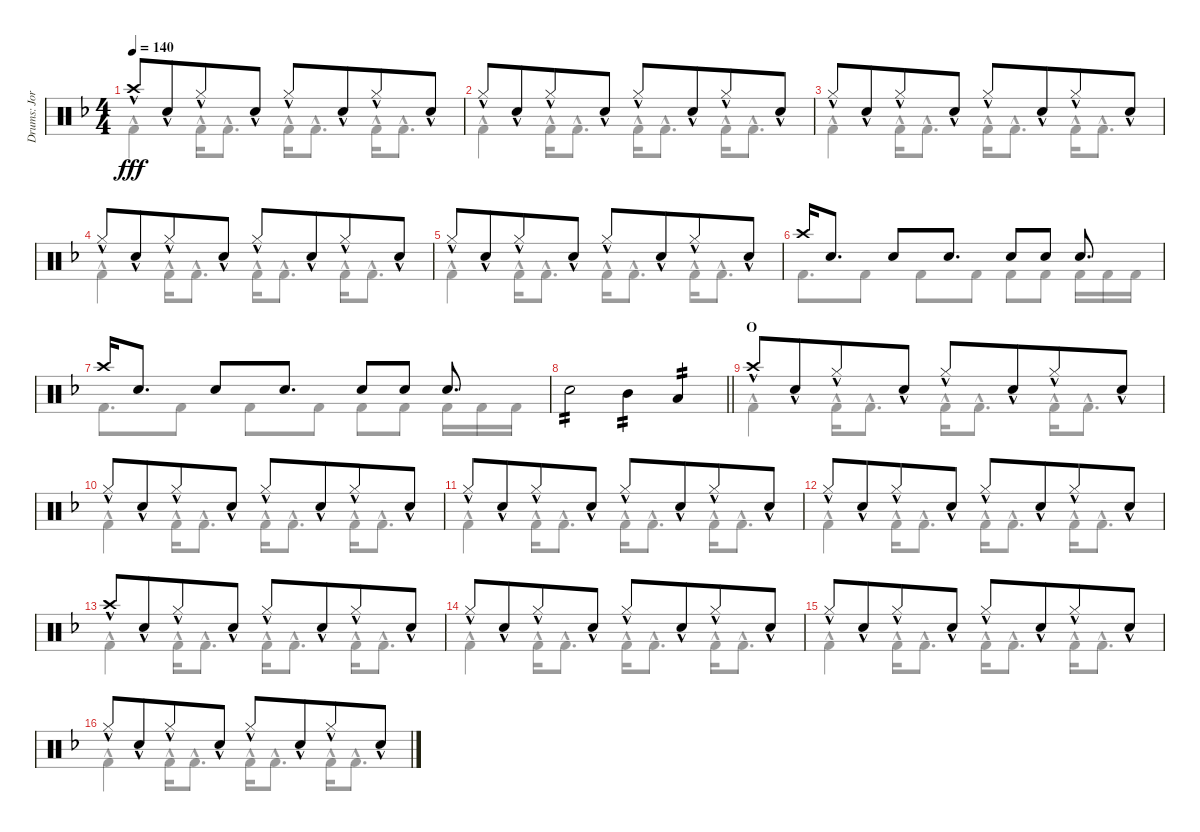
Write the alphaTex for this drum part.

\track ("Drums: Jorg" "Drums: Jor") {instrument percussion}
\staff {score}
\articulation defaults
\voice
\ts (4 4)
\tempo 140
\clef neutral
\ks f "Crash high (hit)"{hac}.8{dy fff} "Snare (hit) 2"{hac}.8{beam merge} "Hi-Hat (closed)"{hac}.8 "Snare (hit) 2"{hac}.8 "Hi-Hat (closed)"{hac}.8 "Snare (hit) 2"{hac}.8{beam merge} "Hi-Hat (closed)"{hac}.8 "Snare (hit) 2"{hac}.8
|
"Hi-Hat (closed)"{hac}.8 "Snare (hit) 2"{hac}.8{beam merge} "Hi-Hat (closed)"{hac}.8 "Snare (hit) 2"{hac}.8 "Hi-Hat (closed)"{hac}.8 "Snare (hit) 2"{hac}.8{beam merge} "Hi-Hat (closed)"{hac}.8 "Snare (hit) 2"{hac}.8 |
"Hi-Hat (closed)"{hac}.8 "Snare (hit) 2"{hac}.8{beam merge} "Hi-Hat (closed)"{hac}.8 "Snare (hit) 2"{hac}.8 "Hi-Hat (closed)"{hac}.8 "Snare (hit) 2"{hac}.8{beam merge} "Hi-Hat (closed)"{hac}.8 "Snare (hit) 2"{hac}.8 |
"Hi-Hat (closed)"{hac}.8 "Snare (hit) 2"{hac}.8{beam merge} "Hi-Hat (closed)"{hac}.8 "Snare (hit) 2"{hac}.8 "Hi-Hat (closed)"{hac}.8 "Snare (hit) 2"{hac}.8{beam merge} "Hi-Hat (closed)"{hac}.8 "Snare (hit) 2"{hac}.8 |
"Hi-Hat (closed)"{hac}.8 "Snare (hit) 2"{hac}.8{beam merge} "Hi-Hat (closed)"{hac}.8 "Snare (hit) 2"{hac}.8 "Hi-Hat (closed)"{hac}.8 "Snare (hit) 2"{hac}.8{beam merge} "Hi-Hat (closed)"{hac}.8 "Snare (hit) 2"{hac}.8 |
"Crash high (hit)".16 "Snare (hit) 2".8{d} "Snare (hit) 2".8 "Snare (hit) 2".8{d} "Snare (hit) 2".8 "Snare (hit) 2".8 "Snare (hit) 2".8{d} |
"Crash high (hit)".16 "Snare (hit) 2".8{d} "Snare (hit) 2".8 "Snare (hit) 2".8{d} "Snare (hit) 2".8 "Snare (hit) 2".8 "Snare (hit) 2".8{d} |
\barLineRight lightlight "Snare (hit) 2".2{tp 2} "Mid Tom (hit)".4{tp 2} "Low Tom (hit)".4{tp 2}
|
\section ("" "O")
"Crash high (hit)"{hac}.8 "Snare (hit) 2"{hac}.8{beam merge} "Hi-Hat (closed)"{hac}.8 "Snare (hit) 2"{hac}.8 "Hi-Hat (closed)"{hac}.8 "Snare (hit) 2"{hac}.8{beam merge} "Hi-Hat (closed)"{hac}.8 "Snare (hit) 2"{hac}.8 |
"Hi-Hat (closed)"{hac}.8 "Snare (hit) 2"{hac}.8{beam merge} "Hi-Hat (closed)"{hac}.8 "Snare (hit) 2"{hac}.8 "Hi-Hat (closed)"{hac}.8 "Snare (hit) 2"{hac}.8{beam merge} "Hi-Hat (closed)"{hac}.8 "Snare (hit) 2"{hac}.8 |
"Hi-Hat (closed)"{hac}.8 "Snare (hit) 2"{hac}.8{beam merge} "Hi-Hat (closed)"{hac}.8 "Snare (hit) 2"{hac}.8 "Hi-Hat (closed)"{hac}.8 "Snare (hit) 2"{hac}.8{beam merge} "Hi-Hat (closed)"{hac}.8 "Snare (hit) 2"{hac}.8 |
"Hi-Hat (closed)"{hac}.8 "Snare (hit) 2"{hac}.8{beam merge} "Hi-Hat (closed)"{hac}.8 "Snare (hit) 2"{hac}.8 "Hi-Hat (closed)"{hac}.8 "Snare (hit) 2"{hac}.8{beam merge} "Hi-Hat (closed)"{hac}.8 "Snare (hit) 2"{hac}.8 |
"Crash high (hit)"{hac}.8 "Snare (hit) 2"{hac}.8{beam merge} "Hi-Hat (closed)"{hac}.8 "Snare (hit) 2"{hac}.8 "Hi-Hat (closed)"{hac}.8 "Snare (hit) 2"{hac}.8{beam merge} "Hi-Hat (closed)"{hac}.8 "Snare (hit) 2"{hac}.8 |
"Hi-Hat (closed)"{hac}.8 "Snare (hit) 2"{hac}.8{beam merge} "Hi-Hat (closed)"{hac}.8 "Snare (hit) 2"{hac}.8 "Hi-Hat (closed)"{hac}.8 "Snare (hit) 2"{hac}.8{beam merge} "Hi-Hat (closed)"{hac}.8 "Snare (hit) 2"{hac}.8 |
"Hi-Hat (closed)"{hac}.8 "Snare (hit) 2"{hac}.8{beam merge} "Hi-Hat (closed)"{hac}.8 "Snare (hit) 2"{hac}.8 "Hi-Hat (closed)"{hac}.8 "Snare (hit) 2"{hac}.8{beam merge} "Hi-Hat (closed)"{hac}.8 "Snare (hit) 2"{hac}.8 |
"Hi-Hat (closed)"{hac}.8 "Snare (hit) 2"{hac}.8{beam merge} "Hi-Hat (closed)"{hac}.8 "Snare (hit) 2"{hac}.8 "Hi-Hat (closed)"{hac}.8 "Snare (hit) 2"{hac}.8{beam merge} "Hi-Hat (closed)"{hac}.8 "Snare (hit) 2"{hac}.8
\voice
\clef neutral
\ottava regular
\simile none
\ks f "Kick (hit) 2"{hac}.4{dy fff} "Kick (hit) 2"{hac}.16 "Kick (hit) 2"{hac}.8{d} "Kick (hit) 2"{hac}.16 "Kick (hit) 2"{hac}.8{d} "Kick (hit) 2"{hac}.16 "Kick (hit) 2"{hac}.8{d}
|
"Kick (hit) 2"{hac}.4 "Kick (hit) 2"{hac}.16 "Kick (hit) 2"{hac}.8{d} "Kick (hit) 2"{hac}.16 "Kick (hit) 2"{hac}.8{d} "Kick (hit) 2"{hac}.16 "Kick (hit) 2"{hac}.8{d} |
"Kick (hit) 2"{hac}.4 "Kick (hit) 2"{hac}.16 "Kick (hit) 2"{hac}.8{d} "Kick (hit) 2"{hac}.16 "Kick (hit) 2"{hac}.8{d} "Kick (hit) 2"{hac}.16 "Kick (hit) 2"{hac}.8{d} |
"Kick (hit) 2"{hac}.4 "Kick (hit) 2"{hac}.16 "Kick (hit) 2"{hac}.8{d} "Kick (hit) 2"{hac}.16 "Kick (hit) 2"{hac}.8{d} "Kick (hit) 2"{hac}.16 "Kick (hit) 2"{hac}.8{d} |
"Kick (hit) 2"{hac}.4 "Kick (hit) 2"{hac}.16 "Kick (hit) 2"{hac}.8{d} "Kick (hit) 2"{hac}.16 "Kick (hit) 2"{hac}.8{d} "Kick (hit) 2"{hac}.16 "Kick (hit) 2"{hac}.8{d} |
"Kick (hit) 2".8{d} "Kick (hit) 2".8 "Kick (hit) 2".8 "Kick (hit) 2".8 "Kick (hit) 2".8 "Kick (hit) 2".8 "Kick (hit) 2".16 "Kick (hit) 2".16 "Kick (hit) 2".16 |
"Kick (hit) 2".8{d} "Kick (hit) 2".8 "Kick (hit) 2".8 "Kick (hit) 2".8 "Kick (hit) 2".8 "Kick (hit) 2".8 "Kick (hit) 2".16 "Kick (hit) 2".16 "Kick (hit) 2".16 |
\barLineRight lightlight
|
"Kick (hit) 2"{hac}.4 "Kick (hit) 2"{hac}.16 "Kick (hit) 2"{hac}.8{d} "Kick (hit) 2"{hac}.16 "Kick (hit) 2"{hac}.8{d} "Kick (hit) 2"{hac}.16 "Kick (hit) 2"{hac}.8{d} |
"Kick (hit) 2"{hac}.4 "Kick (hit) 2"{hac}.16 "Kick (hit) 2"{hac}.8{d} "Kick (hit) 2"{hac}.16 "Kick (hit) 2"{hac}.8{d} "Kick (hit) 2"{hac}.16 "Kick (hit) 2"{hac}.8{d} |
"Kick (hit) 2"{hac}.4 "Kick (hit) 2"{hac}.16 "Kick (hit) 2"{hac}.8{d} "Kick (hit) 2"{hac}.16 "Kick (hit) 2"{hac}.8{d} "Kick (hit) 2"{hac}.16 "Kick (hit) 2"{hac}.8{d} |
"Kick (hit) 2"{hac}.4 "Kick (hit) 2"{hac}.16 "Kick (hit) 2"{hac}.8{d} "Kick (hit) 2"{hac}.16 "Kick (hit) 2"{hac}.8{d} "Kick (hit) 2"{hac}.16 "Kick (hit) 2"{hac}.8{d} |
"Kick (hit) 2"{hac}.4 "Kick (hit) 2"{hac}.16 "Kick (hit) 2"{hac}.8{d} "Kick (hit) 2"{hac}.16 "Kick (hit) 2"{hac}.8{d} "Kick (hit) 2"{hac}.16 "Kick (hit) 2"{hac}.8{d} |
"Kick (hit) 2"{hac}.4 "Kick (hit) 2"{hac}.16 "Kick (hit) 2"{hac}.8{d} "Kick (hit) 2"{hac}.16 "Kick (hit) 2"{hac}.8{d} "Kick (hit) 2"{hac}.16 "Kick (hit) 2"{hac}.8{d} |
"Kick (hit) 2"{hac}.4 "Kick (hit) 2"{hac}.16 "Kick (hit) 2"{hac}.8{d} "Kick (hit) 2"{hac}.16 "Kick (hit) 2"{hac}.8{d} "Kick (hit) 2"{hac}.16 "Kick (hit) 2"{hac}.8{d} |
"Kick (hit) 2"{hac}.4 "Kick (hit) 2"{hac}.16 "Kick (hit) 2"{hac}.8{d} "Kick (hit) 2"{hac}.16 "Kick (hit) 2"{hac}.8{d} "Kick (hit) 2"{hac}.16 "Kick (hit) 2"{hac}.8{d}
